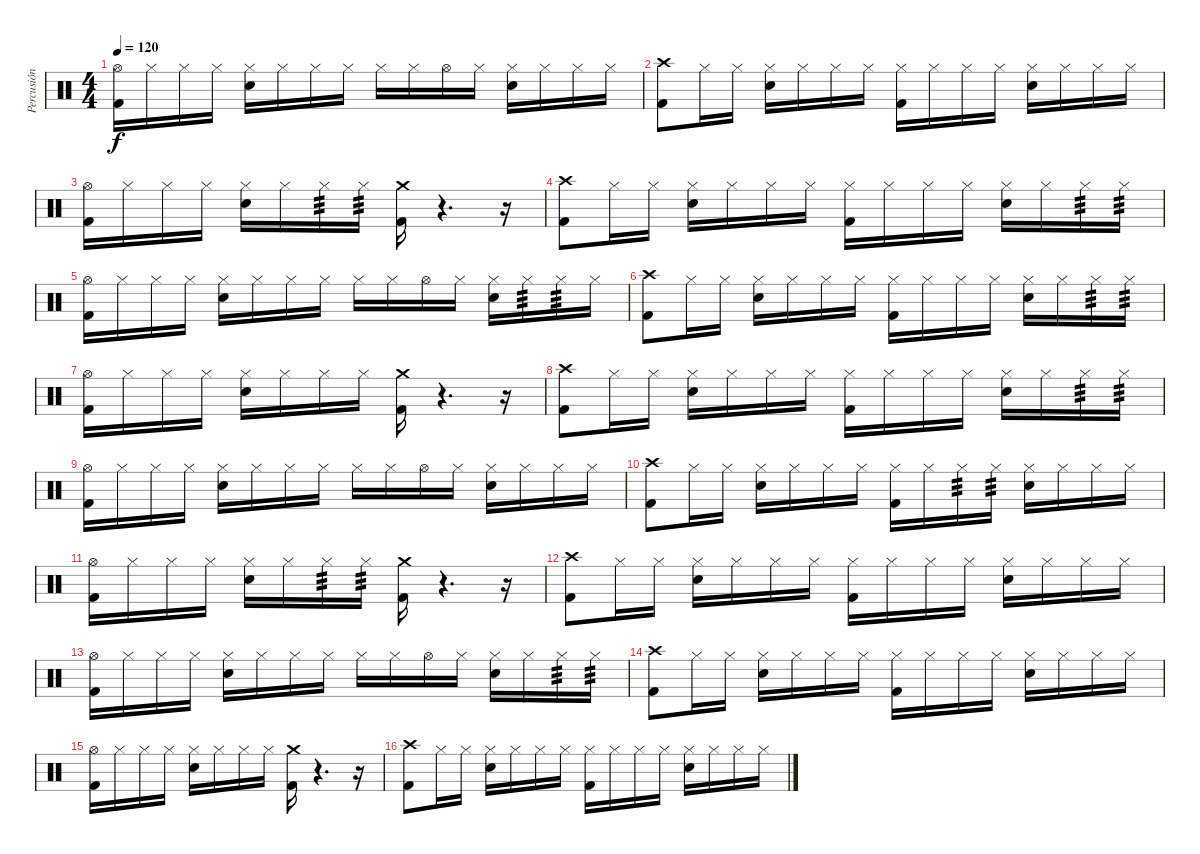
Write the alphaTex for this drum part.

\track ("Percusión" "Percusión") {instrument percussion}
\staff {score}
\articulation defaults
\ts (4 4)
\tempo 120
\clef neutral
\ks c
("Hi-Hat (open)" "Kick (hit) 2").16{dy f} "Hi-Hat (closed)".16 "Hi-Hat (closed)".16 "Hi-Hat (closed)".16 ("Hi-Hat (closed)" "Electric Snare (hit)").16 "Hi-Hat (closed)".16 "Hi-Hat (closed)".16 "Hi-Hat (closed)".16 "Hi-Hat (closed)".16 "Hi-Hat (closed)".16 "Hi-Hat (open)".16 "Hi-Hat (closed)".16 ("Hi-Hat (closed)" "Electric Snare (hit)").16 "Hi-Hat (closed)".16 "Hi-Hat (closed)".16 "Hi-Hat (closed)".16 |
("Crash high (hit)" "Kick (hit) 2").8 "Hi-Hat (closed)".16 "Hi-Hat (closed)".16 ("Hi-Hat (closed)" "Electric Snare (hit)").16 "Hi-Hat (closed)".16 "Hi-Hat (closed)".16 "Hi-Hat (closed)".16 ("Hi-Hat (closed)" "Kick (hit) 2").16 "Hi-Hat (closed)".16 "Hi-Hat (closed)".16 "Hi-Hat (closed)".16 ("Hi-Hat (closed)" "Electric Snare (hit)").16 "Hi-Hat (closed)".16 "Hi-Hat (closed)".16 "Hi-Hat (closed)".16 |
("Hi-Hat (open)" "Kick (hit) 2").16 "Hi-Hat (closed)".16 "Hi-Hat (closed)".16 "Hi-Hat (closed)".16 ("Hi-Hat (closed)" "Electric Snare (hit)").16 "Hi-Hat (closed)".16 "Hi-Hat (closed)".16{tp 3} "Hi-Hat (closed)".16{tp 3} ("Crash medium (hit)" "Kick (hit) 2").16 r.4{d} r.16 |
("Crash high (hit)" "Kick (hit) 2").8 "Hi-Hat (closed)".16 "Hi-Hat (closed)".16 ("Hi-Hat (closed)" "Electric Snare (hit)").16 "Hi-Hat (closed)".16 "Hi-Hat (closed)".16 "Hi-Hat (closed)".16 ("Hi-Hat (closed)" "Kick (hit) 2").16 "Hi-Hat (closed)".16 "Hi-Hat (closed)".16 "Hi-Hat (closed)".16 ("Hi-Hat (closed)" "Electric Snare (hit)").16 "Hi-Hat (closed)".16 "Hi-Hat (closed)".16{tp 3} "Hi-Hat (closed)".16{tp 3} |
("Hi-Hat (open)" "Kick (hit) 2").16 "Hi-Hat (closed)".16 "Hi-Hat (closed)".16 "Hi-Hat (closed)".16 ("Hi-Hat (closed)" "Electric Snare (hit)").16 "Hi-Hat (closed)".16 "Hi-Hat (closed)".16 "Hi-Hat (closed)".16 "Hi-Hat (closed)".16 "Hi-Hat (closed)".16 "Hi-Hat (open)".16 "Hi-Hat (closed)".16 ("Hi-Hat (closed)" "Electric Snare (hit)").16 "Hi-Hat (closed)".16{tp 3} "Hi-Hat (closed)".16{tp 3} "Hi-Hat (closed)".16 |
("Crash high (hit)" "Kick (hit) 2").8 "Hi-Hat (closed)".16 "Hi-Hat (closed)".16 ("Hi-Hat (closed)" "Electric Snare (hit)").16 "Hi-Hat (closed)".16 "Hi-Hat (closed)".16 "Hi-Hat (closed)".16 ("Hi-Hat (closed)" "Kick (hit) 2").16 "Hi-Hat (closed)".16 "Hi-Hat (closed)".16 "Hi-Hat (closed)".16 ("Hi-Hat (closed)" "Electric Snare (hit)").16 "Hi-Hat (closed)".16 "Hi-Hat (closed)".16{tp 3} "Hi-Hat (closed)".16{tp 3} |
("Hi-Hat (open)" "Kick (hit) 2").16 "Hi-Hat (closed)".16 "Hi-Hat (closed)".16 "Hi-Hat (closed)".16 ("Hi-Hat (closed)" "Electric Snare (hit)").16 "Hi-Hat (closed)".16 "Hi-Hat (closed)".16 "Hi-Hat (closed)".16 ("Crash medium (hit)" "Kick (hit) 2").16 r.4{d} r.16 |
("Crash high (hit)" "Kick (hit) 2").8 "Hi-Hat (closed)".16 "Hi-Hat (closed)".16 ("Hi-Hat (closed)" "Electric Snare (hit)").16 "Hi-Hat (closed)".16 "Hi-Hat (closed)".16 "Hi-Hat (closed)".16 ("Hi-Hat (closed)" "Kick (hit) 2").16 "Hi-Hat (closed)".16 "Hi-Hat (closed)".16 "Hi-Hat (closed)".16 ("Hi-Hat (closed)" "Electric Snare (hit)").16 "Hi-Hat (closed)".16 "Hi-Hat (closed)".16{tp 3} "Hi-Hat (closed)".16{tp 3} |
("Hi-Hat (open)" "Kick (hit) 2").16 "Hi-Hat (closed)".16 "Hi-Hat (closed)".16 "Hi-Hat (closed)".16 ("Hi-Hat (closed)" "Electric Snare (hit)").16 "Hi-Hat (closed)".16 "Hi-Hat (closed)".16 "Hi-Hat (closed)".16 "Hi-Hat (closed)".16 "Hi-Hat (closed)".16 "Hi-Hat (open)".16 "Hi-Hat (closed)".16 ("Hi-Hat (closed)" "Electric Snare (hit)").16 "Hi-Hat (closed)".16 "Hi-Hat (closed)".16 "Hi-Hat (closed)".16 |
("Crash high (hit)" "Kick (hit) 2").8 "Hi-Hat (closed)".16 "Hi-Hat (closed)".16 ("Hi-Hat (closed)" "Electric Snare (hit)").16 "Hi-Hat (closed)".16 "Hi-Hat (closed)".16 "Hi-Hat (closed)".16 ("Hi-Hat (closed)" "Kick (hit) 2").16 "Hi-Hat (closed)".16 "Hi-Hat (closed)".16{tp 3} "Hi-Hat (closed)".16{tp 3} ("Hi-Hat (closed)" "Electric Snare (hit)").16 "Hi-Hat (closed)".16 "Hi-Hat (closed)".16 "Hi-Hat (closed)".16 |
("Hi-Hat (open)" "Kick (hit) 2").16 "Hi-Hat (closed)".16 "Hi-Hat (closed)".16 "Hi-Hat (closed)".16 ("Hi-Hat (closed)" "Electric Snare (hit)").16 "Hi-Hat (closed)".16 "Hi-Hat (closed)".16{tp 3} "Hi-Hat (closed)".16{tp 3} ("Crash medium (hit)" "Kick (hit) 2").16 r.4{d} r.16 |
("Crash high (hit)" "Kick (hit) 2").8 "Hi-Hat (closed)".16 "Hi-Hat (closed)".16 ("Hi-Hat (closed)" "Electric Snare (hit)").16 "Hi-Hat (closed)".16 "Hi-Hat (closed)".16 "Hi-Hat (closed)".16 ("Hi-Hat (closed)" "Kick (hit) 2").16 "Hi-Hat (closed)".16 "Hi-Hat (closed)".16 "Hi-Hat (closed)".16 ("Hi-Hat (closed)" "Electric Snare (hit)").16 "Hi-Hat (closed)".16 "Hi-Hat (closed)".16 "Hi-Hat (closed)".16 |
("Hi-Hat (open)" "Kick (hit) 2").16 "Hi-Hat (closed)".16 "Hi-Hat (closed)".16 "Hi-Hat (closed)".16 ("Hi-Hat (closed)" "Electric Snare (hit)").16 "Hi-Hat (closed)".16 "Hi-Hat (closed)".16 "Hi-Hat (closed)".16 "Hi-Hat (closed)".16 "Hi-Hat (closed)".16 "Hi-Hat (open)".16 "Hi-Hat (closed)".16 ("Hi-Hat (closed)" "Electric Snare (hit)").16 "Hi-Hat (closed)".16 "Hi-Hat (closed)".16{tp 3} "Hi-Hat (closed)".16{tp 3} |
("Crash high (hit)" "Kick (hit) 2").8 "Hi-Hat (closed)".16 "Hi-Hat (closed)".16 ("Hi-Hat (closed)" "Electric Snare (hit)").16 "Hi-Hat (closed)".16 "Hi-Hat (closed)".16 "Hi-Hat (closed)".16 ("Hi-Hat (closed)" "Kick (hit) 2").16 "Hi-Hat (closed)".16 "Hi-Hat (closed)".16 "Hi-Hat (closed)".16 ("Hi-Hat (closed)" "Electric Snare (hit)").16 "Hi-Hat (closed)".16 "Hi-Hat (closed)".16 "Hi-Hat (closed)".16 |
("Hi-Hat (open)" "Kick (hit) 2").16 "Hi-Hat (closed)".16 "Hi-Hat (closed)".16 "Hi-Hat (closed)".16 ("Hi-Hat (closed)" "Electric Snare (hit)").16 "Hi-Hat (closed)".16 "Hi-Hat (closed)".16 "Hi-Hat (closed)".16 ("Crash medium (hit)" "Kick (hit) 2").16 r.4{d} r.16 |
("Crash high (hit)" "Kick (hit) 2").8 "Hi-Hat (closed)".16 "Hi-Hat (closed)".16 ("Hi-Hat (closed)" "Electric Snare (hit)").16 "Hi-Hat (closed)".16 "Hi-Hat (closed)".16 "Hi-Hat (closed)".16 ("Hi-Hat (closed)" "Kick (hit) 2").16 "Hi-Hat (closed)".16 "Hi-Hat (closed)".16 "Hi-Hat (closed)".16 ("Hi-Hat (closed)" "Electric Snare (hit)").16 "Hi-Hat (closed)".16 "Hi-Hat (closed)".16 "Hi-Hat (closed)".16
